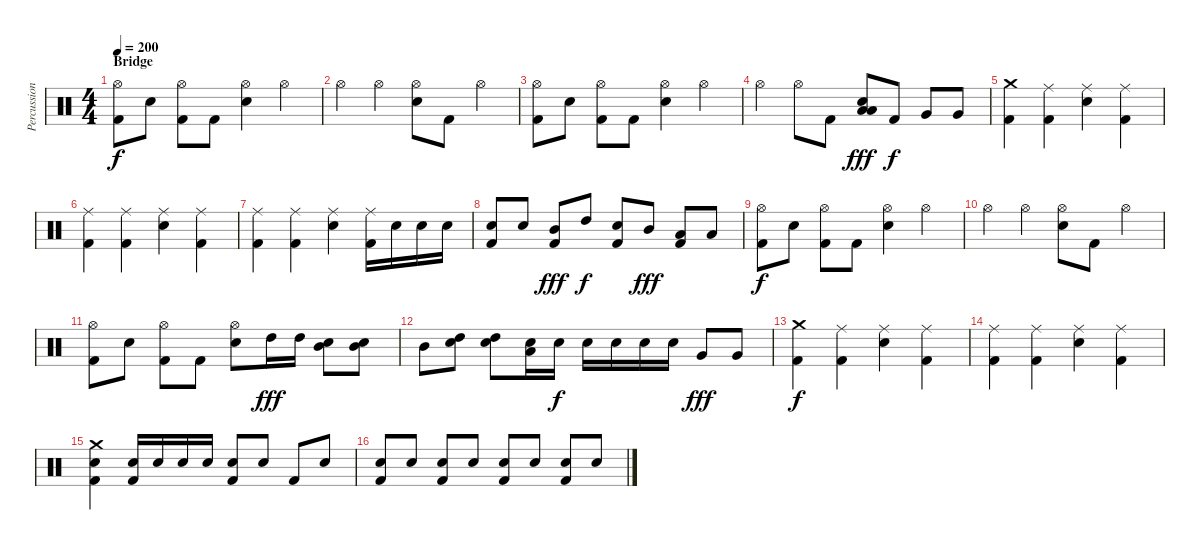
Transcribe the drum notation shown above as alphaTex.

\track ("Percussion" "Percussion") {instrument percussion}
\staff {score}
\articulation defaults
\ts (4 4)
\section ("" "Bridge")
\tempo 200
\clef neutral
\ks c
("Hi-Hat (open)" "Kick (hit) 2").8{dy f} "Electric Snare (hit)".8 ("Hi-Hat (open)" "Kick (hit) 2").8 "Kick (hit) 2".8 ("Hi-Hat (open)" "Electric Snare (hit)").4 "Hi-Hat (open)".4 |
"Hi-Hat (open)".4 "Hi-Hat (open)".4 ("Hi-Hat (open)" "Electric Snare (hit)").8 "Kick (hit) 2".8 "Hi-Hat (open)".4 |
("Hi-Hat (open)" "Kick (hit) 2").8 "Electric Snare (hit)".8 ("Hi-Hat (open)" "Kick (hit) 2").8 "Kick (hit) 2".8 ("Hi-Hat (open)" "Electric Snare (hit)").4 "Hi-Hat (open)".4 |
"Hi-Hat (open)".4 "Hi-Hat (open)".8 "Kick (hit) 2".8 ("Low Floor Tom (hit)" "Low Floor Tom (hit)" "Electric Snare (hit)").8{dy fff} "Kick (hit) 2".8{dy f balance 8} "Very Low Tom (hit)".8 "Very Low Tom (hit)".8 |
("Crash medium (hit)" "Kick (hit) 2").4 ("Ride (middle)" "Kick (hit) 2").4 ("Ride (middle)" "Electric Snare (hit)").4 ("Ride (middle)" "Kick (hit) 2").4 |
("Ride (middle)" "Kick (hit) 2").4 ("Ride (middle)" "Kick (hit) 2").4 ("Ride (middle)" "Electric Snare (hit)").4 ("Ride (middle)" "Kick (hit) 2").4 |
("Ride (middle)" "Kick (hit) 2").4 ("Ride (middle)" "Kick (hit) 2").4 ("Ride (middle)" "Electric Snare (hit)").4 ("Ride (middle)" "Kick (hit) 2").16 "Electric Snare (hit)".16 "Electric Snare (hit)".16 "Electric Snare (hit)".16 |
("Electric Snare (hit)" "Kick (hit) 2").8 "Electric Snare (hit)".8 ("Mid Tom (hit)" "Kick (hit) 2").8{dy fff} "High Tom (hit)".8{dy f balance 11} ("Electric Snare (hit)" "Kick (hit) 2").8{balance 8} "Mid Tom (hit)".8{dy fff balance 13} ("Low Floor Tom (hit)" "Kick (hit) 2").8{balance 8} "Low Floor Tom (hit)".8{balance 2} |
("Hi-Hat (open)" "Kick (hit) 2").8{dy f balance 8} "Electric Snare (hit)".8 ("Hi-Hat (open)" "Kick (hit) 2").8 "Kick (hit) 2".8 ("Hi-Hat (open)" "Electric Snare (hit)").4 "Hi-Hat (open)".4 |
"Hi-Hat (open)".4 "Hi-Hat (open)".4 ("Hi-Hat (open)" "Electric Snare (hit)").8 "Kick (hit) 2".8 "Hi-Hat (open)".4 |
("Hi-Hat (open)" "Kick (hit) 2").8 "Electric Snare (hit)".8 ("Hi-Hat (open)" "Kick (hit) 2").8 "Kick (hit) 2".8 ("Hi-Hat (open)" "Electric Snare (hit)").8 "High Tom (hit)".16{dy fff balance 11} "High Tom (hit)".16 ("Mid Tom (hit)" "Electric Snare (hit)").8{balance 8} ("Mid Tom (hit)" "Electric Snare (hit)").8 |
"Mid Tom (hit)".8{balance 13} ("High Tom (hit)" "Electric Snare (hit)").8{balance 8} ("High Tom (hit)" "Electric Snare (hit)").8 ("Low Floor Tom (hit)" "Electric Snare (hit)").16 "Electric Snare (hit)".16{dy f} "Electric Snare (hit)".16 "Electric Snare (hit)".16 "Electric Snare (hit)".16 "Electric Snare (hit)".16 "Very Low Tom (hit)".8{dy fff} "Very Low Tom (hit)".8 |
("Crash medium (hit)" "Kick (hit) 2").4{dy f} ("Ride (middle)" "Kick (hit) 2").4 ("Ride (middle)" "Electric Snare (hit)").4 ("Ride (middle)" "Kick (hit) 2").4 |
("Ride (middle)" "Kick (hit) 2").4 ("Ride (middle)" "Kick (hit) 2").4 ("Ride (middle)" "Electric Snare (hit)").4 ("Ride (middle)" "Kick (hit) 2").4 |
("Crash medium (hit)" "Electric Snare (hit)" "Kick (hit) 2").4 ("Electric Snare (hit)" "Kick (hit) 2").16 "Electric Snare (hit)".16 "Electric Snare (hit)".16 "Electric Snare (hit)".16 ("Electric Snare (hit)" "Kick (hit) 2").8 "Electric Snare (hit)".8 "Kick (hit) 2".8 "Electric Snare (hit)".8 |
("Electric Snare (hit)" "Kick (hit) 2").8 "Electric Snare (hit)".8 ("Electric Snare (hit)" "Kick (hit) 2").8 "Electric Snare (hit)".8 ("Electric Snare (hit)" "Kick (hit) 2").8 "Electric Snare (hit)".8 ("Electric Snare (hit)" "Kick (hit) 2").8 "Electric Snare (hit)".8
